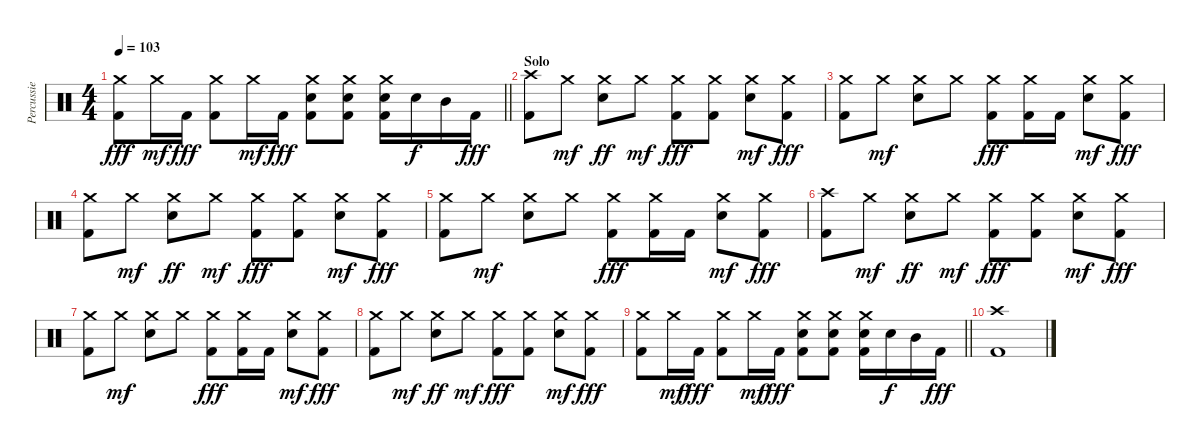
\track ("Percussie" "Percussie") {instrument percussion}
\staff {score}
\articulation defaults
\ts (4 4)
\tempo 103
\clef neutral
\barLineRight lightlight
\ks c
("Crash medium (hit)" "Kick (hit) 2").8{dy fff} "Crash medium (hit)".16{dy mf} "Kick (hit) 2".16{dy fff} ("Crash medium (hit)" "Kick (hit) 2").8 "Crash medium (hit)".16{dy mf} "Kick (hit) 2".16{dy fff} ("Crash medium (hit)" "Electric Snare (hit)" "Kick (hit) 2").8 ("Crash medium (hit)" "Electric Snare (hit)" "Kick (hit) 2").8 ("Crash medium (hit)" "Electric Snare (hit)" "Kick (hit) 2").16 "Electric Snare (hit)".16{dy f} "Mid Tom (hit)".16 "Kick (hit) 2".16{dy fff} |
\section ("" "Solo")
("Crash high (hit)" "Kick (hit) 2").8 "Crash medium (hit)".8{dy mf} ("Crash medium (hit)" "Electric Snare (hit)").8{dy ff} "Crash medium (hit)".8{dy mf} ("Crash medium (hit)" "Kick (hit) 2").8{dy fff} ("Crash medium (hit)" "Kick (hit) 2").8 ("Crash medium (hit)" "Electric Snare (hit)").8{dy mf} ("Crash medium (hit)" "Kick (hit) 2").8{dy fff} |
("Crash medium (hit)" "Kick (hit) 2").8 "Crash medium (hit)".8{dy mf} ("Crash medium (hit)" "Electric Snare (hit)").8 "Crash medium (hit)".8 ("Crash medium (hit)" "Kick (hit) 2").8{dy fff} ("Crash medium (hit)" "Kick (hit) 2").16 "Kick (hit) 2".16 ("Crash medium (hit)" "Electric Snare (hit)").8{dy mf} ("Crash medium (hit)" "Kick (hit) 2").8{dy fff} |
("Crash medium (hit)" "Kick (hit) 2").8 "Crash medium (hit)".8{dy mf} ("Crash medium (hit)" "Electric Snare (hit)").8{dy ff} "Crash medium (hit)".8{dy mf} ("Crash medium (hit)" "Kick (hit) 2").8{dy fff} ("Crash medium (hit)" "Kick (hit) 2").8 ("Crash medium (hit)" "Electric Snare (hit)").8{dy mf} ("Crash medium (hit)" "Kick (hit) 2").8{dy fff} |
("Crash medium (hit)" "Kick (hit) 2").8 "Crash medium (hit)".8{dy mf} ("Crash medium (hit)" "Electric Snare (hit)").8 "Crash medium (hit)".8 ("Crash medium (hit)" "Kick (hit) 2").8{dy fff} ("Crash medium (hit)" "Kick (hit) 2").16 "Kick (hit) 2".16 ("Crash medium (hit)" "Electric Snare (hit)").8{dy mf} ("Crash medium (hit)" "Kick (hit) 2").8{dy fff} |
("Crash high (hit)" "Kick (hit) 2").8 "Crash medium (hit)".8{dy mf} ("Crash medium (hit)" "Electric Snare (hit)").8{dy ff} "Crash medium (hit)".8{dy mf} ("Crash medium (hit)" "Kick (hit) 2").8{dy fff} ("Crash medium (hit)" "Kick (hit) 2").8 ("Crash medium (hit)" "Electric Snare (hit)").8{dy mf} ("Crash medium (hit)" "Kick (hit) 2").8{dy fff} |
("Crash medium (hit)" "Kick (hit) 2").8 "Crash medium (hit)".8{dy mf} ("Crash medium (hit)" "Electric Snare (hit)").8 "Crash medium (hit)".8 ("Crash medium (hit)" "Kick (hit) 2").8{dy fff} ("Crash medium (hit)" "Kick (hit) 2").16 "Kick (hit) 2".16 ("Crash medium (hit)" "Electric Snare (hit)").8{dy mf} ("Crash medium (hit)" "Kick (hit) 2").8{dy fff} |
("Crash medium (hit)" "Kick (hit) 2").8 "Crash medium (hit)".8{dy mf} ("Crash medium (hit)" "Electric Snare (hit)").8{dy ff} "Crash medium (hit)".8{dy mf} ("Crash medium (hit)" "Kick (hit) 2").8{dy fff} ("Crash medium (hit)" "Kick (hit) 2").8 ("Crash medium (hit)" "Electric Snare (hit)").8{dy mf} ("Crash medium (hit)" "Kick (hit) 2").8{dy fff} |
\barLineRight lightlight
("Crash medium (hit)" "Kick (hit) 2").8 "Crash medium (hit)".16{dy mf} "Kick (hit) 2".16{dy fff} ("Crash medium (hit)" "Kick (hit) 2").8 "Crash medium (hit)".16{dy mf} "Kick (hit) 2".16{dy fff} ("Crash medium (hit)" "Electric Snare (hit)" "Kick (hit) 2").8 ("Crash medium (hit)" "Electric Snare (hit)" "Kick (hit) 2").8 ("Crash medium (hit)" "Electric Snare (hit)" "Kick (hit) 2").16 "Electric Snare (hit)".16{dy f} "Mid Tom (hit)".16 "Kick (hit) 2".16{dy fff} |
("Crash high (hit)" "Kick (hit) 2").1
